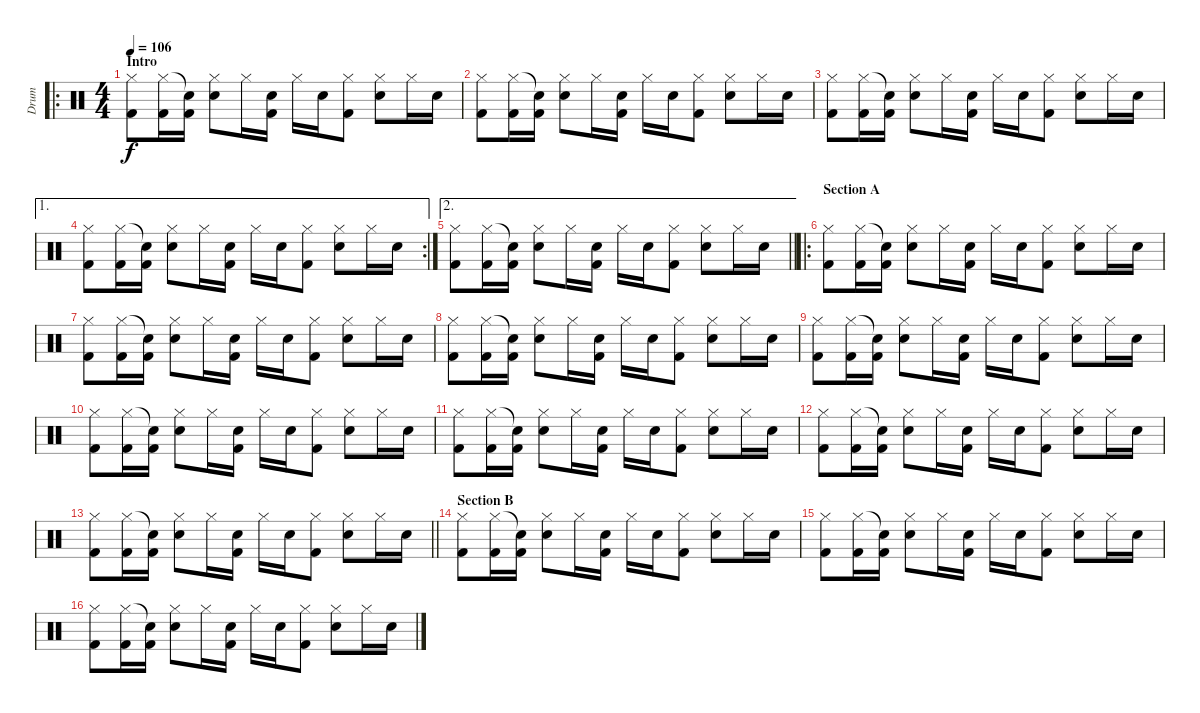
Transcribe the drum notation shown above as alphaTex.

\track ("Drum" "Drum") {instrument percussion}
\staff {score}
\articulation defaults
\ro
\ts (4 4)
\section ("" "Intro")
\tempo 106
\clef neutral
\ks c
("Hi-Hat (closed)" "Kick (hit) 2").8{dy f} ("Hi-Hat (closed)" "Kick (hit) 2").16 ("Snare (hit)"{t} "Kick (hit) 2").16 ("Hi-Hat (closed)" "Snare (hit) 2").8 "Hi-Hat (closed)".16 ("Snare (hit) 2" "Kick (hit) 2").16 "Hi-Hat (closed)".16 "Snare (hit) 2".16 ("Hi-Hat (closed)" "Kick (hit) 2").8 ("Hi-Hat (closed)" "Snare (hit) 2").8 "Hi-Hat (closed)".16 "Snare (hit) 2".16 |
("Hi-Hat (closed)" "Kick (hit) 2").8 ("Hi-Hat (closed)" "Kick (hit) 2").16 ("Snare (hit)"{t} "Kick (hit) 2").16 ("Hi-Hat (closed)" "Snare (hit) 2").8 "Hi-Hat (closed)".16 ("Snare (hit) 2" "Kick (hit) 2").16 "Hi-Hat (closed)".16 "Snare (hit) 2".16 ("Hi-Hat (closed)" "Kick (hit) 2").8 ("Hi-Hat (closed)" "Snare (hit) 2").8 "Hi-Hat (closed)".16 "Snare (hit) 2".16 |
("Hi-Hat (closed)" "Kick (hit) 2").8 ("Hi-Hat (closed)" "Kick (hit) 2").16 ("Snare (hit)"{t} "Kick (hit) 2").16 ("Hi-Hat (closed)" "Snare (hit) 2").8 "Hi-Hat (closed)".16 ("Snare (hit) 2" "Kick (hit) 2").16 "Hi-Hat (closed)".16 "Snare (hit) 2".16 ("Hi-Hat (closed)" "Kick (hit) 2").8 ("Hi-Hat (closed)" "Snare (hit) 2").8 "Hi-Hat (closed)".16 "Snare (hit) 2".16 |
\ae 1
\rc 2
("Hi-Hat (closed)" "Kick (hit) 2").8 ("Hi-Hat (closed)" "Kick (hit) 2").16 ("Snare (hit)"{t} "Kick (hit) 2").16 ("Hi-Hat (closed)" "Snare (hit) 2").8 "Hi-Hat (closed)".16 ("Snare (hit) 2" "Kick (hit) 2").16 "Hi-Hat (closed)".16 "Snare (hit) 2".16 ("Hi-Hat (closed)" "Kick (hit) 2").8 ("Hi-Hat (closed)" "Snare (hit) 2").8 "Hi-Hat (closed)".16 "Snare (hit) 2".16 |
\ae 2
\barLineRight lightlight
("Hi-Hat (closed)" "Kick (hit) 2").8 ("Hi-Hat (closed)" "Kick (hit) 2").16 ("Snare (hit)"{t} "Kick (hit) 2").16 ("Hi-Hat (closed)" "Snare (hit) 2").8 "Hi-Hat (closed)".16 ("Snare (hit) 2" "Kick (hit) 2").16 "Hi-Hat (closed)".16 "Snare (hit) 2".16 ("Hi-Hat (closed)" "Kick (hit) 2").8 ("Hi-Hat (closed)" "Snare (hit) 2").8 "Hi-Hat (closed)".16 "Snare (hit) 2".16 |
\ro
\section ("" "Section A")
("Hi-Hat (closed)" "Kick (hit) 2").8 ("Hi-Hat (closed)" "Kick (hit) 2").16 ("Snare (hit)"{t} "Kick (hit) 2").16 ("Hi-Hat (closed)" "Snare (hit) 2").8 "Hi-Hat (closed)".16 ("Snare (hit) 2" "Kick (hit) 2").16 "Hi-Hat (closed)".16 "Snare (hit) 2".16 ("Hi-Hat (closed)" "Kick (hit) 2").8 ("Hi-Hat (closed)" "Snare (hit) 2").8 "Hi-Hat (closed)".16 "Snare (hit) 2".16 |
("Hi-Hat (closed)" "Kick (hit) 2").8 ("Hi-Hat (closed)" "Kick (hit) 2").16 ("Snare (hit)"{t} "Kick (hit) 2").16 ("Hi-Hat (closed)" "Snare (hit) 2").8 "Hi-Hat (closed)".16 ("Snare (hit) 2" "Kick (hit) 2").16 "Hi-Hat (closed)".16 "Snare (hit) 2".16 ("Hi-Hat (closed)" "Kick (hit) 2").8 ("Hi-Hat (closed)" "Snare (hit) 2").8 "Hi-Hat (closed)".16 "Snare (hit) 2".16 |
("Hi-Hat (closed)" "Kick (hit) 2").8 ("Hi-Hat (closed)" "Kick (hit) 2").16 ("Snare (hit)"{t} "Kick (hit) 2").16 ("Hi-Hat (closed)" "Snare (hit) 2").8 "Hi-Hat (closed)".16 ("Snare (hit) 2" "Kick (hit) 2").16 "Hi-Hat (closed)".16 "Snare (hit) 2".16 ("Hi-Hat (closed)" "Kick (hit) 2").8 ("Hi-Hat (closed)" "Snare (hit) 2").8 "Hi-Hat (closed)".16 "Snare (hit) 2".16 |
("Hi-Hat (closed)" "Kick (hit) 2").8 ("Hi-Hat (closed)" "Kick (hit) 2").16 ("Snare (hit)"{t} "Kick (hit) 2").16 ("Hi-Hat (closed)" "Snare (hit) 2").8 "Hi-Hat (closed)".16 ("Snare (hit) 2" "Kick (hit) 2").16 "Hi-Hat (closed)".16 "Snare (hit) 2".16 ("Hi-Hat (closed)" "Kick (hit) 2").8 ("Hi-Hat (closed)" "Snare (hit) 2").8 "Hi-Hat (closed)".16 "Snare (hit) 2".16 |
("Hi-Hat (closed)" "Kick (hit) 2").8 ("Hi-Hat (closed)" "Kick (hit) 2").16 ("Snare (hit)"{t} "Kick (hit) 2").16 ("Hi-Hat (closed)" "Snare (hit) 2").8 "Hi-Hat (closed)".16 ("Snare (hit) 2" "Kick (hit) 2").16 "Hi-Hat (closed)".16 "Snare (hit) 2".16 ("Hi-Hat (closed)" "Kick (hit) 2").8 ("Hi-Hat (closed)" "Snare (hit) 2").8 "Hi-Hat (closed)".16 "Snare (hit) 2".16 |
("Hi-Hat (closed)" "Kick (hit) 2").8 ("Hi-Hat (closed)" "Kick (hit) 2").16 ("Snare (hit)"{t} "Kick (hit) 2").16 ("Hi-Hat (closed)" "Snare (hit) 2").8 "Hi-Hat (closed)".16 ("Snare (hit) 2" "Kick (hit) 2").16 "Hi-Hat (closed)".16 "Snare (hit) 2".16 ("Hi-Hat (closed)" "Kick (hit) 2").8 ("Hi-Hat (closed)" "Snare (hit) 2").8 "Hi-Hat (closed)".16 "Snare (hit) 2".16 |
("Hi-Hat (closed)" "Kick (hit) 2").8 ("Hi-Hat (closed)" "Kick (hit) 2").16 ("Snare (hit)"{t} "Kick (hit) 2").16 ("Hi-Hat (closed)" "Snare (hit) 2").8 "Hi-Hat (closed)".16 ("Snare (hit) 2" "Kick (hit) 2").16 "Hi-Hat (closed)".16 "Snare (hit) 2".16 ("Hi-Hat (closed)" "Kick (hit) 2").8 ("Hi-Hat (closed)" "Snare (hit) 2").8 "Hi-Hat (closed)".16 "Snare (hit) 2".16 |
\barLineRight lightlight
("Hi-Hat (closed)" "Kick (hit) 2").8 ("Hi-Hat (closed)" "Kick (hit) 2").16 ("Snare (hit)"{t} "Kick (hit) 2").16 ("Hi-Hat (closed)" "Snare (hit) 2").8 "Hi-Hat (closed)".16 ("Snare (hit) 2" "Kick (hit) 2").16 "Hi-Hat (closed)".16 "Snare (hit) 2".16 ("Hi-Hat (closed)" "Kick (hit) 2").8 ("Hi-Hat (closed)" "Snare (hit) 2").8 "Hi-Hat (closed)".16 "Snare (hit) 2".16 |
\section ("" "Section B")
("Hi-Hat (closed)" "Kick (hit) 2").8 ("Hi-Hat (closed)" "Kick (hit) 2").16 ("Snare (hit)"{t} "Kick (hit) 2").16 ("Hi-Hat (closed)" "Snare (hit) 2").8 "Hi-Hat (closed)".16 ("Snare (hit) 2" "Kick (hit) 2").16 "Hi-Hat (closed)".16 "Snare (hit) 2".16 ("Hi-Hat (closed)" "Kick (hit) 2").8 ("Hi-Hat (closed)" "Snare (hit) 2").8 "Hi-Hat (closed)".16 "Snare (hit) 2".16 |
("Hi-Hat (closed)" "Kick (hit) 2").8 ("Hi-Hat (closed)" "Kick (hit) 2").16 ("Snare (hit)"{t} "Kick (hit) 2").16 ("Hi-Hat (closed)" "Snare (hit) 2").8 "Hi-Hat (closed)".16 ("Snare (hit) 2" "Kick (hit) 2").16 "Hi-Hat (closed)".16 "Snare (hit) 2".16 ("Hi-Hat (closed)" "Kick (hit) 2").8 ("Hi-Hat (closed)" "Snare (hit) 2").8 "Hi-Hat (closed)".16 "Snare (hit) 2".16 |
("Hi-Hat (closed)" "Kick (hit) 2").8 ("Hi-Hat (closed)" "Kick (hit) 2").16 ("Snare (hit)"{t} "Kick (hit) 2").16 ("Hi-Hat (closed)" "Snare (hit) 2").8 "Hi-Hat (closed)".16 ("Snare (hit) 2" "Kick (hit) 2").16 "Hi-Hat (closed)".16 "Snare (hit) 2".16 ("Hi-Hat (closed)" "Kick (hit) 2").8 ("Hi-Hat (closed)" "Snare (hit) 2").8 "Hi-Hat (closed)".16 "Snare (hit) 2".16
